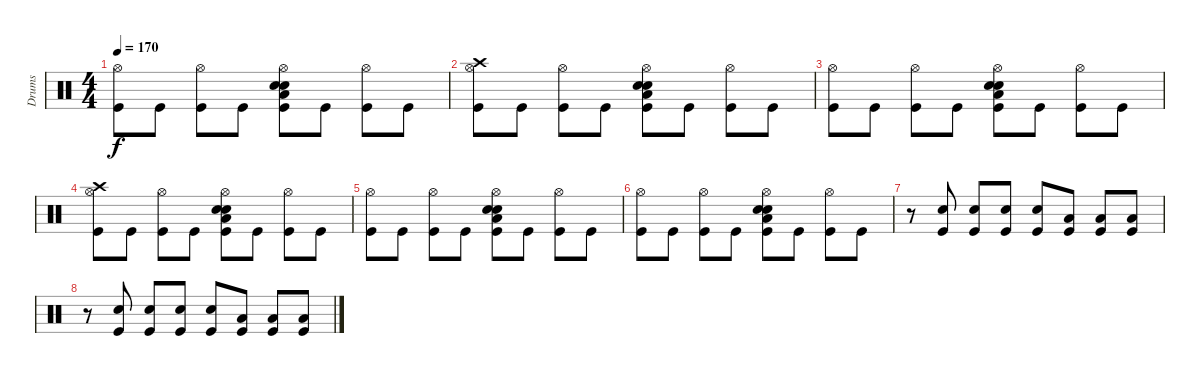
\track ("Drums" "Drums") {instrument percussion}
\staff {score}
\articulation defaults
\ts (4 4)
\tempo 170
\clef neutral
\ks c
("Hi-Hat (open)" "Kick (hit)").8{dy f} "Kick (hit)".8 ("Hi-Hat (open)" "Kick (hit)").8 "Kick (hit)".8 ("Low Floor Tom (hit)" "Hi-Hat (open)" "Electric Snare (hit)" "Electric Snare (hit)" "Kick (hit)").8 "Kick (hit)".8 ("Hi-Hat (open)" "Kick (hit)").8 "Kick (hit)".8 |
("Crash high (hit)" "Hi-Hat (open)" "Kick (hit)").8 "Kick (hit)".8 ("Hi-Hat (open)" "Kick (hit)").8 "Kick (hit)".8 ("Low Floor Tom (hit)" "Hi-Hat (open)" "Electric Snare (hit)" "Electric Snare (hit)" "Kick (hit)").8 "Kick (hit)".8 ("Hi-Hat (open)" "Kick (hit)").8 "Kick (hit)".8 |
("Hi-Hat (open)" "Kick (hit)").8 "Kick (hit)".8 ("Hi-Hat (open)" "Kick (hit)").8 "Kick (hit)".8 ("Low Floor Tom (hit)" "Hi-Hat (open)" "Electric Snare (hit)" "Electric Snare (hit)" "Kick (hit)").8 "Kick (hit)".8 ("Hi-Hat (open)" "Kick (hit)").8 "Kick (hit)".8 |
("Crash high (hit)" "Hi-Hat (open)" "Kick (hit)").8 "Kick (hit)".8 ("Hi-Hat (open)" "Kick (hit)").8 "Kick (hit)".8 ("Low Floor Tom (hit)" "Hi-Hat (open)" "Electric Snare (hit)" "Electric Snare (hit)" "Kick (hit)").8 "Kick (hit)".8 ("Hi-Hat (open)" "Kick (hit)").8 "Kick (hit)".8 |
("Hi-Hat (open)" "Kick (hit)").8 "Kick (hit)".8 ("Hi-Hat (open)" "Kick (hit)").8 "Kick (hit)".8 ("Low Floor Tom (hit)" "Hi-Hat (open)" "Electric Snare (hit)" "Electric Snare (hit)" "Kick (hit)").8 "Kick (hit)".8 ("Hi-Hat (open)" "Kick (hit)").8 "Kick (hit)".8 |
("Hi-Hat (open)" "Kick (hit)").8 "Kick (hit)".8 ("Hi-Hat (open)" "Kick (hit)").8 "Kick (hit)".8 ("Low Floor Tom (hit)" "Hi-Hat (open)" "Electric Snare (hit)" "Electric Snare (hit)" "Kick (hit)").8 "Kick (hit)".8 ("Hi-Hat (open)" "Kick (hit)").8 "Kick (hit)".8 |
r.8 ("Electric Snare (hit)" "Kick (hit)").8 ("Electric Snare (hit)" "Kick (hit)").8 ("Electric Snare (hit)" "Kick (hit)").8 ("Electric Snare (hit)" "Kick (hit)").8 ("Low Floor Tom (hit)" "Kick (hit)").8 ("Low Floor Tom (hit)" "Kick (hit)").8 ("Low Floor Tom (hit)" "Kick (hit)").8 |
r.8 ("Electric Snare (hit)" "Kick (hit)").8 ("Electric Snare (hit)" "Kick (hit)").8 ("Electric Snare (hit)" "Kick (hit)").8 ("Electric Snare (hit)" "Kick (hit)").8 ("Low Floor Tom (hit)" "Kick (hit)").8 ("Low Floor Tom (hit)" "Kick (hit)").8 ("Low Floor Tom (hit)" "Kick (hit)").8
